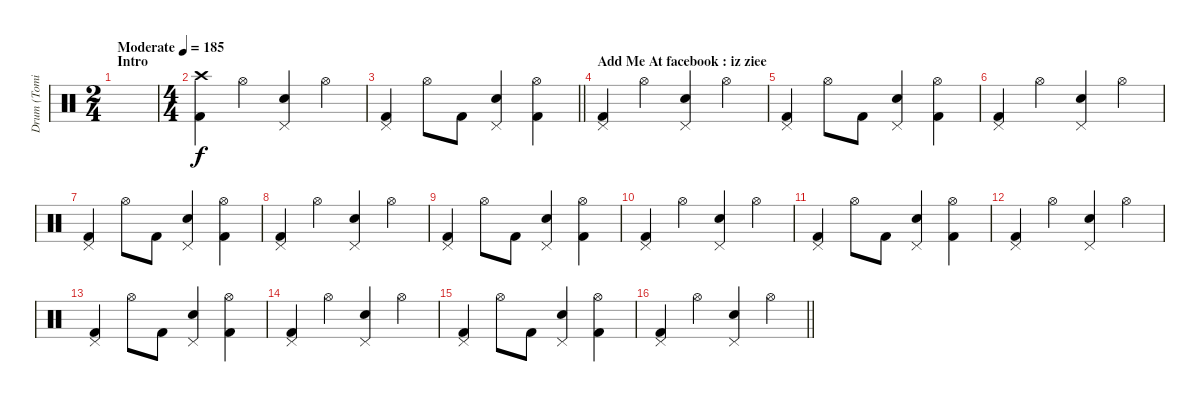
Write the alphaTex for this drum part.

\track ("Drum (Tomi)" "Drum (Tomi") {instrument percussion}
\staff {score}
\articulation defaults
\ts (2 4)
\section ("" "Intro")
\tempo (185 "Moderate")
\clef neutral
\ks c
|
\ts (4 4)
("Crash high (hit)" "Kick (hit) 2").4 "Hi-Hat (open)".4 ("Pedal Hi-Hat (hit)" "Electric Snare (hit)").4 "Hi-Hat (open)".4 |
\barLineRight lightlight
("Pedal Hi-Hat (hit)" "Kick (hit) 2").4 "Hi-Hat (open)".8 "Kick (hit) 2".8 ("Pedal Hi-Hat (hit)" "Electric Snare (hit)").4 ("Hi-Hat (open)" "Kick (hit) 2").4 |
\section ("" "Add Me At facebook : iz ziee")
("Pedal Hi-Hat (hit)" "Kick (hit) 2").4 "Hi-Hat (open)".4 ("Pedal Hi-Hat (hit)" "Electric Snare (hit)").4 "Hi-Hat (open)".4 |
("Pedal Hi-Hat (hit)" "Kick (hit) 2").4 "Hi-Hat (open)".8 "Kick (hit) 2".8 ("Pedal Hi-Hat (hit)" "Electric Snare (hit)").4 ("Hi-Hat (open)" "Kick (hit) 2").4 |
("Pedal Hi-Hat (hit)" "Kick (hit) 2").4 "Hi-Hat (open)".4 ("Pedal Hi-Hat (hit)" "Electric Snare (hit)").4 "Hi-Hat (open)".4 |
("Pedal Hi-Hat (hit)" "Kick (hit) 2").4 "Hi-Hat (open)".8 "Kick (hit) 2".8 ("Pedal Hi-Hat (hit)" "Electric Snare (hit)").4 ("Kick (hit) 2" "Hi-Hat (open)").4 |
("Pedal Hi-Hat (hit)" "Kick (hit) 2").4 "Hi-Hat (open)".4 ("Pedal Hi-Hat (hit)" "Electric Snare (hit)").4 "Hi-Hat (open)".4 |
("Pedal Hi-Hat (hit)" "Kick (hit) 2").4 "Hi-Hat (open)".8 "Kick (hit) 2".8 ("Pedal Hi-Hat (hit)" "Electric Snare (hit)").4 ("Hi-Hat (open)" "Kick (hit) 2").4 |
("Pedal Hi-Hat (hit)" "Kick (hit) 2").4 "Hi-Hat (open)".4 ("Pedal Hi-Hat (hit)" "Electric Snare (hit)").4 "Hi-Hat (open)".4 |
("Pedal Hi-Hat (hit)" "Kick (hit) 2").4 "Hi-Hat (open)".8 "Kick (hit) 2".8 ("Pedal Hi-Hat (hit)" "Electric Snare (hit)").4 ("Kick (hit) 2" "Hi-Hat (open)").4 |
("Pedal Hi-Hat (hit)" "Kick (hit) 2").4 "Hi-Hat (open)".4 ("Pedal Hi-Hat (hit)" "Electric Snare (hit)").4 "Hi-Hat (open)".4 |
("Pedal Hi-Hat (hit)" "Kick (hit) 2").4 "Hi-Hat (open)".8 "Kick (hit) 2".8 ("Pedal Hi-Hat (hit)" "Electric Snare (hit)").4 ("Hi-Hat (open)" "Kick (hit) 2").4 |
("Pedal Hi-Hat (hit)" "Kick (hit) 2").4 "Hi-Hat (open)".4 ("Pedal Hi-Hat (hit)" "Electric Snare (hit)").4 "Hi-Hat (open)".4 |
("Pedal Hi-Hat (hit)" "Kick (hit) 2").4 "Hi-Hat (open)".8 "Kick (hit) 2".8 ("Pedal Hi-Hat (hit)" "Electric Snare (hit)").4 ("Hi-Hat (open)" "Kick (hit) 2").4 |
\barLineRight lightlight
("Pedal Hi-Hat (hit)" "Kick (hit) 2").4 "Hi-Hat (open)".4 ("Pedal Hi-Hat (hit)" "Electric Snare (hit)").4 "Hi-Hat (open)".4
